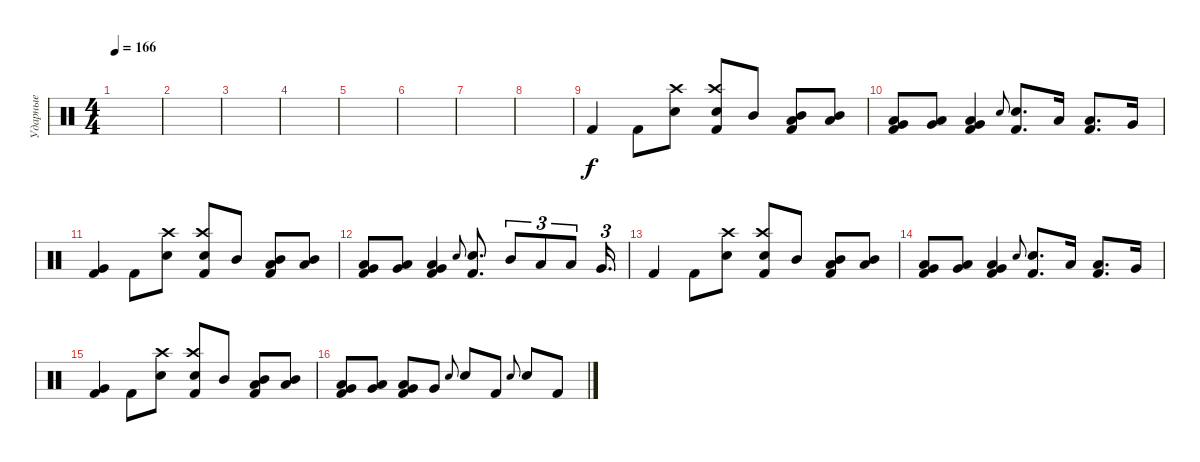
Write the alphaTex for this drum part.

\track ("Ударные" "Ударные") {instrument percussion}
\staff {score}
\articulation defaults
\ts (4 4)
\tempo 166
\clef neutral
\ks c
|
|
|
|
|
|
|
|
"Kick (hit) 2".4 "Kick (hit) 2".8 ("Crash high (hit)" "Electric Snare (hit)").8 ("Crash high (hit)" "Electric Snare (hit)" "Kick (hit) 2").8 "Mid Tom (hit)".8 ("Low Tom (hit)" "Mid Tom (hit)" "Kick (hit) 2").8 ("Low Tom (hit)" "Mid Tom (hit)").8 |
("Very Low Tom (hit)" "Low Tom (hit)" "Kick (hit) 2").8 ("Very Low Tom (hit)" "Low Tom (hit)").8 ("Very Low Tom (hit)" "Low Tom (hit)" "Kick (hit) 2").4 "Electric Snare (hit)".8{gr onbeat} ("Electric Snare (hit)" "Kick (hit) 2").8{d} "Low Tom (hit)".16 ("Low Tom (hit)" "Kick (hit) 2").8{d} "Very Low Tom (hit)".16 |
("Very Low Tom (hit)" "Kick (hit) 2").4 "Kick (hit) 2".8 ("Crash high (hit)" "Electric Snare (hit)").8 ("Crash high (hit)" "Electric Snare (hit)" "Kick (hit) 2").8 "Mid Tom (hit)".8 ("Low Tom (hit)" "Mid Tom (hit)" "Kick (hit) 2").8 ("Low Tom (hit)" "Mid Tom (hit)").8 |
("Very Low Tom (hit)" "Low Tom (hit)" "Kick (hit) 2").8 ("Very Low Tom (hit)" "Low Tom (hit)").8 ("Very Low Tom (hit)" "Low Tom (hit)" "Kick (hit) 2").4 "Electric Snare (hit)".8{gr onbeat} ("Electric Snare (hit)" "Kick (hit) 2").8{d} "Mid Tom (hit)".8{tu (3 2)} "Low Tom (hit)".8{tu (3 2)} "Low Tom (hit)".8{tu (3 2)} "Very Low Tom (hit)".16{d tu (3 2)} |
"Kick (hit) 2".4 "Kick (hit) 2".8 ("Crash high (hit)" "Electric Snare (hit)").8 ("Crash high (hit)" "Electric Snare (hit)" "Kick (hit) 2").8 "Mid Tom (hit)".8 ("Low Tom (hit)" "Mid Tom (hit)" "Kick (hit) 2").8 ("Low Tom (hit)" "Mid Tom (hit)").8 |
("Very Low Tom (hit)" "Low Tom (hit)" "Kick (hit) 2").8 ("Very Low Tom (hit)" "Low Tom (hit)").8 ("Very Low Tom (hit)" "Low Tom (hit)" "Kick (hit) 2").4 "Electric Snare (hit)".8{gr onbeat} ("Electric Snare (hit)" "Kick (hit) 2").8{d} "Low Tom (hit)".16 ("Low Tom (hit)" "Kick (hit) 2").8{d} "Very Low Tom (hit)".16 |
("Very Low Tom (hit)" "Kick (hit) 2").4 "Kick (hit) 2".8 ("Crash high (hit)" "Electric Snare (hit)").8 ("Crash high (hit)" "Electric Snare (hit)" "Kick (hit) 2").8 "Mid Tom (hit)".8 ("Low Tom (hit)" "Mid Tom (hit)" "Kick (hit) 2").8 ("Low Tom (hit)" "Mid Tom (hit)").8 |
("Very Low Tom (hit)" "Low Tom (hit)" "Kick (hit) 2").8 ("Very Low Tom (hit)" "Low Tom (hit)").8 ("Very Low Tom (hit)" "Low Tom (hit)" "Kick (hit) 2").8 "Very Low Tom (hit)".8 "Electric Snare (hit)".8{gr onbeat} "Electric Snare (hit)".8 "Kick (hit) 2".8 "Electric Snare (hit)".8{gr onbeat} "Electric Snare (hit)".8 "Kick (hit) 2".8
